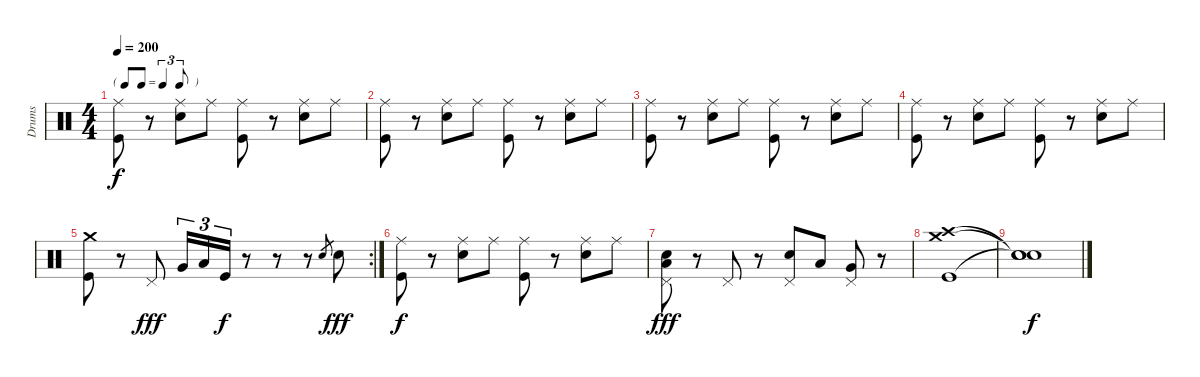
\track ("Drums" "Drums") {instrument percussion}
\staff {score}
\articulation defaults
\ts (4 4)
\tf triplet8th
\tempo 200
\clef neutral
\ks c
("Ride (middle)" "Kick (hit)").8{dy f} r.8 ("Ride (middle)" "Electric Snare (hit)").8 "Ride (middle)".8 ("Ride (middle)" "Kick (hit)").8 r.8 ("Ride (middle)" "Electric Snare (hit)").8 "Ride (middle)".8 |
("Ride (middle)" "Kick (hit)").8 r.8 ("Ride (middle)" "Electric Snare (hit)").8 "Ride (middle)".8 ("Ride (middle)" "Kick (hit)").8 r.8 ("Ride (middle)" "Electric Snare (hit)").8 "Ride (middle)".8 |
("Ride (middle)" "Kick (hit)").8 r.8 ("Ride (middle)" "Electric Snare (hit)").8 "Ride (middle)".8 ("Ride (middle)" "Kick (hit)").8 r.8 ("Ride (middle)" "Electric Snare (hit)").8 "Ride (middle)".8 |
("Ride (middle)" "Kick (hit)").8 r.8 ("Ride (middle)" "Electric Snare (hit)").8 "Ride (middle)".8 ("Ride (middle)" "Kick (hit)").8 r.8 ("Ride (middle)" "Electric Snare (hit)").8 "Ride (middle)".8 |
\rc 2
("Crash medium (hit)" "Kick (hit)").8 r.8 "Pedal Hi-Hat (hit)".8{dy fff} "Very Low Tom (hit)".16{tu (3 2)} "Low Floor Tom (hit)".16{tu (3 2)} "Kick (hit)".16{tu (3 2) dy f} r.8 r.8 r.8 "Electric Snare (hit)".8{gr} "Electric Snare (hit)".8{dy fff} |
("Ride (middle)" "Kick (hit)").8{dy f} r.8 ("Ride (middle)" "Electric Snare (hit)").8 "Ride (middle)".8 ("Ride (middle)" "Kick (hit)").8 r.8 ("Ride (middle)" "Electric Snare (hit)").8 "Ride (middle)".8 |
("Electric Snare (hit)" "Low Floor Tom (hit)" "Pedal Hi-Hat (hit)").8{dy fff} r.8 "Pedal Hi-Hat (hit)".8 r.8 ("Pedal Hi-Hat (hit)" "Electric Snare (hit)").8 "Low Tom (hit)".8 ("Pedal Hi-Hat (hit)" "Very Low Tom (hit)").8 r.8 |
("Crash high (hit)" "Crash medium (hit)" "Kick (hit)").1 |
("Snare (hit)"{t} "Snare (hit)"{t} "Snare (hit)"{t}).1{dy f}
